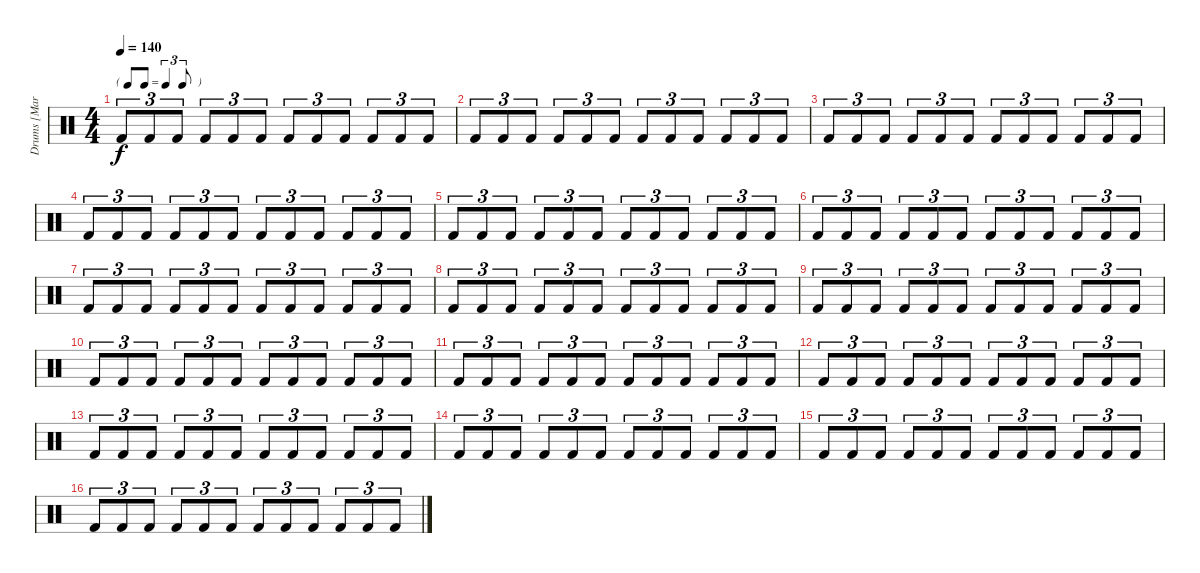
\track ("Drums [Martin Lopez]" "Drums [Mar") {instrument percussion}
\staff {score}
\articulation defaults
\ts (4 4)
\tf triplet8th
\tempo 140
\clef neutral
\ks c "Kick (hit) 2".8{tu (3 2) dy f} "Kick (hit) 2".8{tu (3 2)} "Kick (hit) 2".8{tu (3 2)} "Kick (hit) 2".8{tu (3 2)} "Kick (hit) 2".8{tu (3 2)} "Kick (hit) 2".8{tu (3 2)} "Kick (hit) 2".8{tu (3 2)} "Kick (hit) 2".8{tu (3 2)} "Kick (hit) 2".8{tu (3 2)} "Kick (hit) 2".8{tu (3 2)} "Kick (hit) 2".8{tu (3 2)} "Kick (hit) 2".8{tu (3 2)}
|
"Kick (hit) 2".8{tu (3 2)} "Kick (hit) 2".8{tu (3 2)} "Kick (hit) 2".8{tu (3 2)} "Kick (hit) 2".8{tu (3 2)} "Kick (hit) 2".8{tu (3 2)} "Kick (hit) 2".8{tu (3 2)} "Kick (hit) 2".8{tu (3 2)} "Kick (hit) 2".8{tu (3 2)} "Kick (hit) 2".8{tu (3 2)} "Kick (hit) 2".8{tu (3 2)} "Kick (hit) 2".8{tu (3 2)} "Kick (hit) 2".8{tu (3 2)} |
"Kick (hit) 2".8{tu (3 2)} "Kick (hit) 2".8{tu (3 2)} "Kick (hit) 2".8{tu (3 2)} "Kick (hit) 2".8{tu (3 2)} "Kick (hit) 2".8{tu (3 2)} "Kick (hit) 2".8{tu (3 2)} "Kick (hit) 2".8{tu (3 2)} "Kick (hit) 2".8{tu (3 2)} "Kick (hit) 2".8{tu (3 2)} "Kick (hit) 2".8{tu (3 2)} "Kick (hit) 2".8{tu (3 2)} "Kick (hit) 2".8{tu (3 2)} |
"Kick (hit) 2".8{tu (3 2)} "Kick (hit) 2".8{tu (3 2)} "Kick (hit) 2".8{tu (3 2)} "Kick (hit) 2".8{tu (3 2)} "Kick (hit) 2".8{tu (3 2)} "Kick (hit) 2".8{tu (3 2)} "Kick (hit) 2".8{tu (3 2)} "Kick (hit) 2".8{tu (3 2)} "Kick (hit) 2".8{tu (3 2)} "Kick (hit) 2".8{tu (3 2)} "Kick (hit) 2".8{tu (3 2)} "Kick (hit) 2".8{tu (3 2)} |
"Kick (hit) 2".8{tu (3 2)} "Kick (hit) 2".8{tu (3 2)} "Kick (hit) 2".8{tu (3 2)} "Kick (hit) 2".8{tu (3 2)} "Kick (hit) 2".8{tu (3 2)} "Kick (hit) 2".8{tu (3 2)} "Kick (hit) 2".8{tu (3 2)} "Kick (hit) 2".8{tu (3 2)} "Kick (hit) 2".8{tu (3 2)} "Kick (hit) 2".8{tu (3 2)} "Kick (hit) 2".8{tu (3 2)} "Kick (hit) 2".8{tu (3 2)} |
"Kick (hit) 2".8{tu (3 2)} "Kick (hit) 2".8{tu (3 2)} "Kick (hit) 2".8{tu (3 2)} "Kick (hit) 2".8{tu (3 2)} "Kick (hit) 2".8{tu (3 2)} "Kick (hit) 2".8{tu (3 2)} "Kick (hit) 2".8{tu (3 2)} "Kick (hit) 2".8{tu (3 2)} "Kick (hit) 2".8{tu (3 2)} "Kick (hit) 2".8{tu (3 2)} "Kick (hit) 2".8{tu (3 2)} "Kick (hit) 2".8{tu (3 2)} |
"Kick (hit) 2".8{tu (3 2)} "Kick (hit) 2".8{tu (3 2)} "Kick (hit) 2".8{tu (3 2)} "Kick (hit) 2".8{tu (3 2)} "Kick (hit) 2".8{tu (3 2)} "Kick (hit) 2".8{tu (3 2)} "Kick (hit) 2".8{tu (3 2)} "Kick (hit) 2".8{tu (3 2)} "Kick (hit) 2".8{tu (3 2)} "Kick (hit) 2".8{tu (3 2)} "Kick (hit) 2".8{tu (3 2)} "Kick (hit) 2".8{tu (3 2)} |
"Kick (hit) 2".8{tu (3 2)} "Kick (hit) 2".8{tu (3 2)} "Kick (hit) 2".8{tu (3 2)} "Kick (hit) 2".8{tu (3 2)} "Kick (hit) 2".8{tu (3 2)} "Kick (hit) 2".8{tu (3 2)} "Kick (hit) 2".8{tu (3 2)} "Kick (hit) 2".8{tu (3 2)} "Kick (hit) 2".8{tu (3 2)} "Kick (hit) 2".8{tu (3 2)} "Kick (hit) 2".8{tu (3 2)} "Kick (hit) 2".8{tu (3 2)} |
"Kick (hit) 2".8{tu (3 2)} "Kick (hit) 2".8{tu (3 2)} "Kick (hit) 2".8{tu (3 2)} "Kick (hit) 2".8{tu (3 2)} "Kick (hit) 2".8{tu (3 2)} "Kick (hit) 2".8{tu (3 2)} "Kick (hit) 2".8{tu (3 2)} "Kick (hit) 2".8{tu (3 2)} "Kick (hit) 2".8{tu (3 2)} "Kick (hit) 2".8{tu (3 2)} "Kick (hit) 2".8{tu (3 2)} "Kick (hit) 2".8{tu (3 2)} |
"Kick (hit) 2".8{tu (3 2)} "Kick (hit) 2".8{tu (3 2)} "Kick (hit) 2".8{tu (3 2)} "Kick (hit) 2".8{tu (3 2)} "Kick (hit) 2".8{tu (3 2)} "Kick (hit) 2".8{tu (3 2)} "Kick (hit) 2".8{tu (3 2)} "Kick (hit) 2".8{tu (3 2)} "Kick (hit) 2".8{tu (3 2)} "Kick (hit) 2".8{tu (3 2)} "Kick (hit) 2".8{tu (3 2)} "Kick (hit) 2".8{tu (3 2)} |
"Kick (hit) 2".8{tu (3 2)} "Kick (hit) 2".8{tu (3 2)} "Kick (hit) 2".8{tu (3 2)} "Kick (hit) 2".8{tu (3 2)} "Kick (hit) 2".8{tu (3 2)} "Kick (hit) 2".8{tu (3 2)} "Kick (hit) 2".8{tu (3 2)} "Kick (hit) 2".8{tu (3 2)} "Kick (hit) 2".8{tu (3 2)} "Kick (hit) 2".8{tu (3 2)} "Kick (hit) 2".8{tu (3 2)} "Kick (hit) 2".8{tu (3 2)} |
"Kick (hit) 2".8{tu (3 2)} "Kick (hit) 2".8{tu (3 2)} "Kick (hit) 2".8{tu (3 2)} "Kick (hit) 2".8{tu (3 2)} "Kick (hit) 2".8{tu (3 2)} "Kick (hit) 2".8{tu (3 2)} "Kick (hit) 2".8{tu (3 2)} "Kick (hit) 2".8{tu (3 2)} "Kick (hit) 2".8{tu (3 2)} "Kick (hit) 2".8{tu (3 2)} "Kick (hit) 2".8{tu (3 2)} "Kick (hit) 2".8{tu (3 2)} |
"Kick (hit) 2".8{tu (3 2)} "Kick (hit) 2".8{tu (3 2)} "Kick (hit) 2".8{tu (3 2)} "Kick (hit) 2".8{tu (3 2)} "Kick (hit) 2".8{tu (3 2)} "Kick (hit) 2".8{tu (3 2)} "Kick (hit) 2".8{tu (3 2)} "Kick (hit) 2".8{tu (3 2)} "Kick (hit) 2".8{tu (3 2)} "Kick (hit) 2".8{tu (3 2)} "Kick (hit) 2".8{tu (3 2)} "Kick (hit) 2".8{tu (3 2)} |
"Kick (hit) 2".8{tu (3 2)} "Kick (hit) 2".8{tu (3 2)} "Kick (hit) 2".8{tu (3 2)} "Kick (hit) 2".8{tu (3 2)} "Kick (hit) 2".8{tu (3 2)} "Kick (hit) 2".8{tu (3 2)} "Kick (hit) 2".8{tu (3 2)} "Kick (hit) 2".8{tu (3 2)} "Kick (hit) 2".8{tu (3 2)} "Kick (hit) 2".8{tu (3 2)} "Kick (hit) 2".8{tu (3 2)} "Kick (hit) 2".8{tu (3 2)} |
"Kick (hit) 2".8{tu (3 2)} "Kick (hit) 2".8{tu (3 2)} "Kick (hit) 2".8{tu (3 2)} "Kick (hit) 2".8{tu (3 2)} "Kick (hit) 2".8{tu (3 2)} "Kick (hit) 2".8{tu (3 2)} "Kick (hit) 2".8{tu (3 2)} "Kick (hit) 2".8{tu (3 2)} "Kick (hit) 2".8{tu (3 2)} "Kick (hit) 2".8{tu (3 2)} "Kick (hit) 2".8{tu (3 2)} "Kick (hit) 2".8{tu (3 2)} |
"Kick (hit) 2".8{tu (3 2)} "Kick (hit) 2".8{tu (3 2)} "Kick (hit) 2".8{tu (3 2)} "Kick (hit) 2".8{tu (3 2)} "Kick (hit) 2".8{tu (3 2)} "Kick (hit) 2".8{tu (3 2)} "Kick (hit) 2".8{tu (3 2)} "Kick (hit) 2".8{tu (3 2)} "Kick (hit) 2".8{tu (3 2)} "Kick (hit) 2".8{tu (3 2)} "Kick (hit) 2".8{tu (3 2)} "Kick (hit) 2".8{tu (3 2)}
